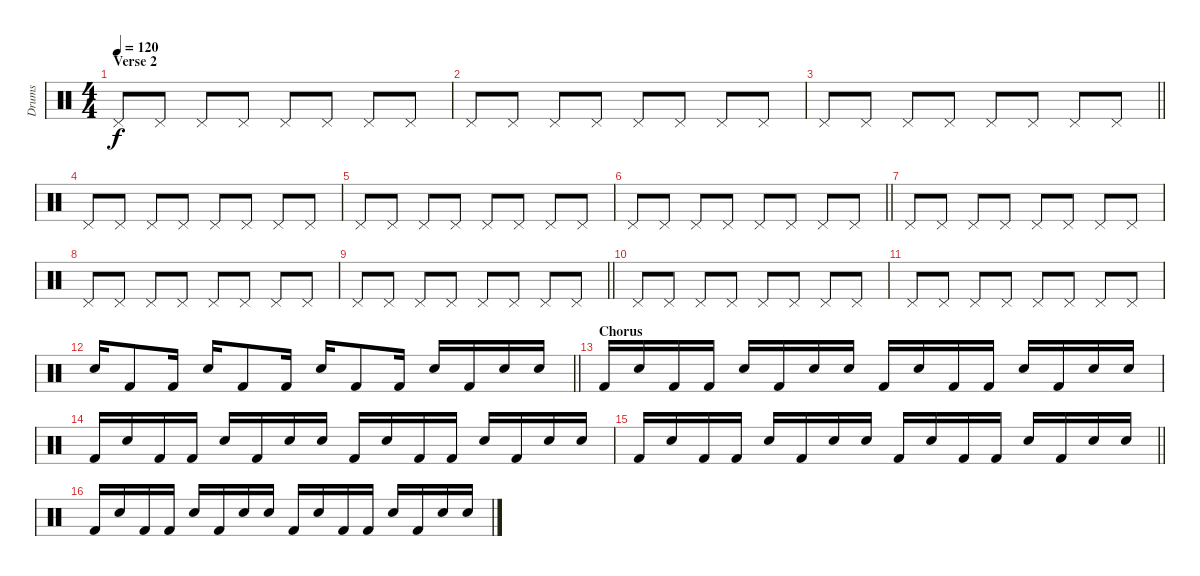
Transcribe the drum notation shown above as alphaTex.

\track ("Drums" "Drums") {instrument percussion}
\staff {score}
\articulation defaults
\ts (4 4)
\section ("" "Verse 2")
\tempo 120
\clef neutral
\ks c "Pedal Hi-Hat (hit)".8{dy f} "Pedal Hi-Hat (hit)".8 "Pedal Hi-Hat (hit)".8 "Pedal Hi-Hat (hit)".8 "Pedal Hi-Hat (hit)".8 "Pedal Hi-Hat (hit)".8 "Pedal Hi-Hat (hit)".8 "Pedal Hi-Hat (hit)".8
|
"Pedal Hi-Hat (hit)".8 "Pedal Hi-Hat (hit)".8 "Pedal Hi-Hat (hit)".8 "Pedal Hi-Hat (hit)".8 "Pedal Hi-Hat (hit)".8 "Pedal Hi-Hat (hit)".8 "Pedal Hi-Hat (hit)".8 "Pedal Hi-Hat (hit)".8 |
\barLineRight lightlight "Pedal Hi-Hat (hit)".8 "Pedal Hi-Hat (hit)".8 "Pedal Hi-Hat (hit)".8 "Pedal Hi-Hat (hit)".8 "Pedal Hi-Hat (hit)".8 "Pedal Hi-Hat (hit)".8 "Pedal Hi-Hat (hit)".8 "Pedal Hi-Hat (hit)".8
|
"Pedal Hi-Hat (hit)".8 "Pedal Hi-Hat (hit)".8 "Pedal Hi-Hat (hit)".8 "Pedal Hi-Hat (hit)".8 "Pedal Hi-Hat (hit)".8 "Pedal Hi-Hat (hit)".8 "Pedal Hi-Hat (hit)".8 "Pedal Hi-Hat (hit)".8 |
"Pedal Hi-Hat (hit)".8 "Pedal Hi-Hat (hit)".8 "Pedal Hi-Hat (hit)".8 "Pedal Hi-Hat (hit)".8 "Pedal Hi-Hat (hit)".8 "Pedal Hi-Hat (hit)".8 "Pedal Hi-Hat (hit)".8 "Pedal Hi-Hat (hit)".8 |
\barLineRight lightlight "Pedal Hi-Hat (hit)".8 "Pedal Hi-Hat (hit)".8 "Pedal Hi-Hat (hit)".8 "Pedal Hi-Hat (hit)".8 "Pedal Hi-Hat (hit)".8 "Pedal Hi-Hat (hit)".8 "Pedal Hi-Hat (hit)".8 "Pedal Hi-Hat (hit)".8
|
"Pedal Hi-Hat (hit)".8 "Pedal Hi-Hat (hit)".8 "Pedal Hi-Hat (hit)".8 "Pedal Hi-Hat (hit)".8 "Pedal Hi-Hat (hit)".8 "Pedal Hi-Hat (hit)".8 "Pedal Hi-Hat (hit)".8 "Pedal Hi-Hat (hit)".8 |
"Pedal Hi-Hat (hit)".8 "Pedal Hi-Hat (hit)".8 "Pedal Hi-Hat (hit)".8 "Pedal Hi-Hat (hit)".8 "Pedal Hi-Hat (hit)".8 "Pedal Hi-Hat (hit)".8 "Pedal Hi-Hat (hit)".8 "Pedal Hi-Hat (hit)".8 |
\barLineRight lightlight "Pedal Hi-Hat (hit)".8 "Pedal Hi-Hat (hit)".8 "Pedal Hi-Hat (hit)".8 "Pedal Hi-Hat (hit)".8 "Pedal Hi-Hat (hit)".8 "Pedal Hi-Hat (hit)".8 "Pedal Hi-Hat (hit)".8 "Pedal Hi-Hat (hit)".8
|
"Pedal Hi-Hat (hit)".8 "Pedal Hi-Hat (hit)".8 "Pedal Hi-Hat (hit)".8 "Pedal Hi-Hat (hit)".8 "Pedal Hi-Hat (hit)".8 "Pedal Hi-Hat (hit)".8 "Pedal Hi-Hat (hit)".8 "Pedal Hi-Hat (hit)".8 |
"Pedal Hi-Hat (hit)".8 "Pedal Hi-Hat (hit)".8 "Pedal Hi-Hat (hit)".8 "Pedal Hi-Hat (hit)".8 "Pedal Hi-Hat (hit)".8 "Pedal Hi-Hat (hit)".8 "Pedal Hi-Hat (hit)".8 "Pedal Hi-Hat (hit)".8 |
\barLineRight lightlight "Snare (hit) 2".16 "Kick (hit) 2".8 "Kick (hit) 2".16 "Snare (hit) 2".16 "Kick (hit) 2".8 "Kick (hit) 2".16 "Snare (hit) 2".16 "Kick (hit) 2".8 "Kick (hit) 2".16 "Snare (hit) 2".16 "Kick (hit) 2".16 "Snare (hit) 2".16 "Snare (hit) 2".16
|
\section ("" "Chorus")
"Kick (hit) 2".16 "Snare (hit) 2".16 "Kick (hit) 2".16 "Kick (hit) 2".16 "Snare (hit) 2".16 "Kick (hit) 2".16 "Snare (hit) 2".16 "Snare (hit) 2".16 "Kick (hit) 2".16 "Snare (hit) 2".16 "Kick (hit) 2".16 "Kick (hit) 2".16 "Snare (hit) 2".16 "Kick (hit) 2".16 "Snare (hit) 2".16 "Snare (hit) 2".16 |
"Kick (hit) 2".16 "Snare (hit) 2".16 "Kick (hit) 2".16 "Kick (hit) 2".16 "Snare (hit) 2".16 "Kick (hit) 2".16 "Snare (hit) 2".16 "Snare (hit) 2".16 "Kick (hit) 2".16 "Snare (hit) 2".16 "Kick (hit) 2".16 "Kick (hit) 2".16 "Snare (hit) 2".16 "Kick (hit) 2".16 "Snare (hit) 2".16 "Snare (hit) 2".16 |
\barLineRight lightlight "Kick (hit) 2".16 "Snare (hit) 2".16 "Kick (hit) 2".16 "Kick (hit) 2".16 "Snare (hit) 2".16 "Kick (hit) 2".16 "Snare (hit) 2".16 "Snare (hit) 2".16 "Kick (hit) 2".16 "Snare (hit) 2".16 "Kick (hit) 2".16 "Kick (hit) 2".16 "Snare (hit) 2".16 "Kick (hit) 2".16 "Snare (hit) 2".16 "Snare (hit) 2".16
|
"Kick (hit) 2".16 "Snare (hit) 2".16 "Kick (hit) 2".16 "Kick (hit) 2".16 "Snare (hit) 2".16 "Kick (hit) 2".16 "Snare (hit) 2".16 "Snare (hit) 2".16 "Kick (hit) 2".16 "Snare (hit) 2".16 "Kick (hit) 2".16 "Kick (hit) 2".16 "Snare (hit) 2".16 "Kick (hit) 2".16 "Snare (hit) 2".16 "Snare (hit) 2".16
